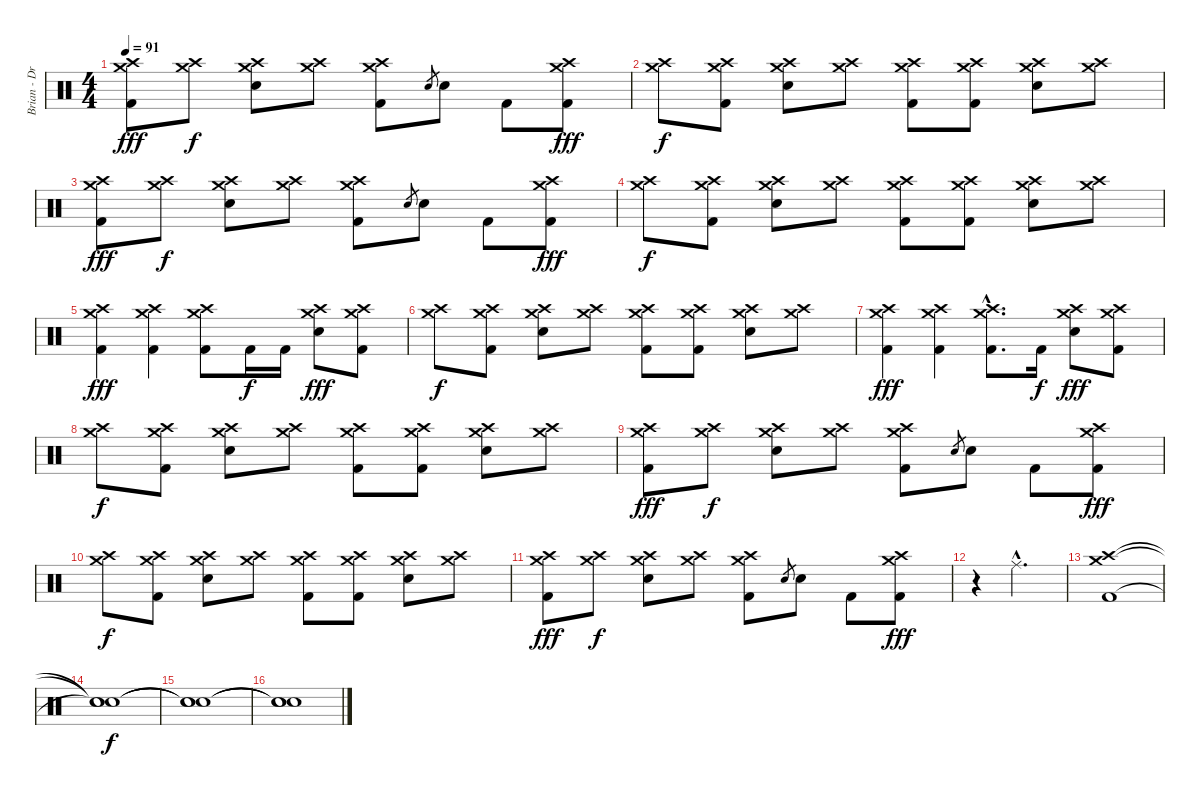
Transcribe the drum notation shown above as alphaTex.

\track ("Brian - Drums" "Brian - Dr") {instrument percussion}
\staff {score}
\articulation defaults
\ts (4 4)
\tempo 91
\clef neutral
\ks c
("Crash medium (hit)" "Crash high (hit)" "Kick (hit) 2").8{dy fff} ("Crash medium (hit)" "Crash high (hit)").8{dy f} ("Crash medium (hit)" "Crash high (hit)" "Snare (hit) 2").8 ("Crash medium (hit)" "Crash high (hit)").8 ("Crash medium (hit)" "Crash high (hit)" "Kick (hit) 2").8 "Snare (hit) 2".8{gr} "Snare (hit) 2".8 "Kick (hit) 2".8 ("Crash medium (hit)" "Crash high (hit)" "Kick (hit) 2").8{dy fff} |
("Crash medium (hit)" "Crash high (hit)").8{dy f} ("Crash medium (hit)" "Crash high (hit)" "Kick (hit) 2").8 ("Crash medium (hit)" "Crash high (hit)" "Snare (hit) 2").8 ("Crash medium (hit)" "Crash high (hit)").8 ("Crash medium (hit)" "Crash high (hit)" "Kick (hit) 2").8 ("Crash medium (hit)" "Crash high (hit)" "Kick (hit) 2").8 ("Crash medium (hit)" "Crash high (hit)" "Snare (hit) 2").8 ("Crash medium (hit)" "Crash high (hit)").8 |
("Crash medium (hit)" "Crash high (hit)" "Kick (hit) 2").8{dy fff} ("Crash medium (hit)" "Crash high (hit)").8{dy f} ("Crash medium (hit)" "Crash high (hit)" "Snare (hit) 2").8 ("Crash medium (hit)" "Crash high (hit)").8 ("Crash medium (hit)" "Crash high (hit)" "Kick (hit) 2").8 "Snare (hit) 2".8{gr} "Snare (hit) 2".8 "Kick (hit) 2".8 ("Crash medium (hit)" "Crash high (hit)" "Kick (hit) 2").8{dy fff} |
("Crash medium (hit)" "Crash high (hit)").8{dy f} ("Crash medium (hit)" "Crash high (hit)" "Kick (hit) 2").8 ("Crash medium (hit)" "Crash high (hit)" "Snare (hit) 2").8 ("Crash medium (hit)" "Crash high (hit)").8 ("Crash medium (hit)" "Crash high (hit)" "Kick (hit) 2").8 ("Crash medium (hit)" "Crash high (hit)" "Kick (hit) 2").8 ("Crash medium (hit)" "Crash high (hit)" "Snare (hit) 2").8 ("Crash medium (hit)" "Crash high (hit)").8 |
("Crash medium (hit)" "Crash high (hit)" "Kick (hit) 2").4{dy fff} ("Crash medium (hit)" "Crash high (hit)" "Kick (hit) 2").4 ("Crash medium (hit)" "Crash high (hit)" "Kick (hit) 2").8 "Kick (hit) 2".16{dy f} "Kick (hit) 2".16 ("Crash medium (hit)" "Crash high (hit)" "Snare (hit) 2").8{dy fff} ("Crash medium (hit)" "Crash high (hit)" "Kick (hit) 2").8 |
("Crash medium (hit)" "Crash high (hit)").8{dy f} ("Crash medium (hit)" "Crash high (hit)" "Kick (hit) 2").8 ("Crash medium (hit)" "Crash high (hit)" "Snare (hit) 2").8 ("Crash medium (hit)" "Crash high (hit)").8 ("Crash medium (hit)" "Crash high (hit)" "Kick (hit) 2").8 ("Crash medium (hit)" "Crash high (hit)" "Kick (hit) 2").8 ("Crash medium (hit)" "Crash high (hit)" "Snare (hit) 2").8 ("Crash medium (hit)" "Crash high (hit)").8 |
("Crash medium (hit)" "Crash high (hit)" "Kick (hit) 2").4{dy fff} ("Crash medium (hit)" "Crash high (hit)" "Kick (hit) 2").4 ("Crash medium (hit)"{hac} "Crash high (hit)"{hac} "Kick (hit) 2"{hac}).8{d} "Kick (hit) 2".16{dy f} ("Crash medium (hit)" "Crash high (hit)" "Snare (hit) 2").8{dy fff} ("Crash medium (hit)" "Crash high (hit)" "Kick (hit) 2").8 |
("Crash medium (hit)" "Crash high (hit)").8{dy f} ("Crash medium (hit)" "Crash high (hit)" "Kick (hit) 2").8 ("Crash medium (hit)" "Crash high (hit)" "Snare (hit) 2").8 ("Crash medium (hit)" "Crash high (hit)").8 ("Crash medium (hit)" "Crash high (hit)" "Kick (hit) 2").8 ("Crash medium (hit)" "Crash high (hit)" "Kick (hit) 2").8 ("Crash medium (hit)" "Crash high (hit)" "Snare (hit) 2").8 ("Crash medium (hit)" "Crash high (hit)").8 |
("Crash medium (hit)" "Crash high (hit)" "Kick (hit) 2").8{dy fff} ("Crash medium (hit)" "Crash high (hit)").8{dy f} ("Crash medium (hit)" "Crash high (hit)" "Snare (hit) 2").8 ("Crash medium (hit)" "Crash high (hit)").8 ("Crash medium (hit)" "Crash high (hit)" "Kick (hit) 2").8 "Snare (hit) 2".8{gr} "Snare (hit) 2".8 "Kick (hit) 2".8 ("Crash medium (hit)" "Crash high (hit)" "Kick (hit) 2").8{dy fff} |
("Crash medium (hit)" "Crash high (hit)").8{dy f} ("Crash medium (hit)" "Crash high (hit)" "Kick (hit) 2").8 ("Crash medium (hit)" "Crash high (hit)" "Snare (hit) 2").8 ("Crash medium (hit)" "Crash high (hit)").8 ("Crash medium (hit)" "Crash high (hit)" "Kick (hit) 2").8 ("Crash medium (hit)" "Crash high (hit)" "Kick (hit) 2").8 ("Crash medium (hit)" "Crash high (hit)" "Snare (hit) 2").8 ("Crash medium (hit)" "Crash high (hit)").8 |
("Crash medium (hit)" "Crash high (hit)" "Kick (hit) 2").8{dy fff} ("Crash medium (hit)" "Crash high (hit)").8{dy f} ("Crash medium (hit)" "Crash high (hit)" "Snare (hit) 2").8 ("Crash medium (hit)" "Crash high (hit)").8 ("Crash medium (hit)" "Crash high (hit)" "Kick (hit) 2").8 "Snare (hit) 2".8{gr} "Snare (hit) 2".8 "Kick (hit) 2".8 ("Crash medium (hit)" "Crash high (hit)" "Kick (hit) 2").8{dy fff} |
r.4 "Ride (middle)"{hac}.2{d} |
("Crash medium (hit)" "Crash high (hit)" "Kick (hit) 2").1 |
("Snare (hit)"{t} "Snare (hit)"{t} "Snare (hit)"{t}).1{dy f} |
("Snare (hit)"{t} "Snare (hit)"{t} "Snare (hit)"{t}).1 |
("Snare (hit)"{t} "Snare (hit)"{t} "Snare (hit)"{t}).1
